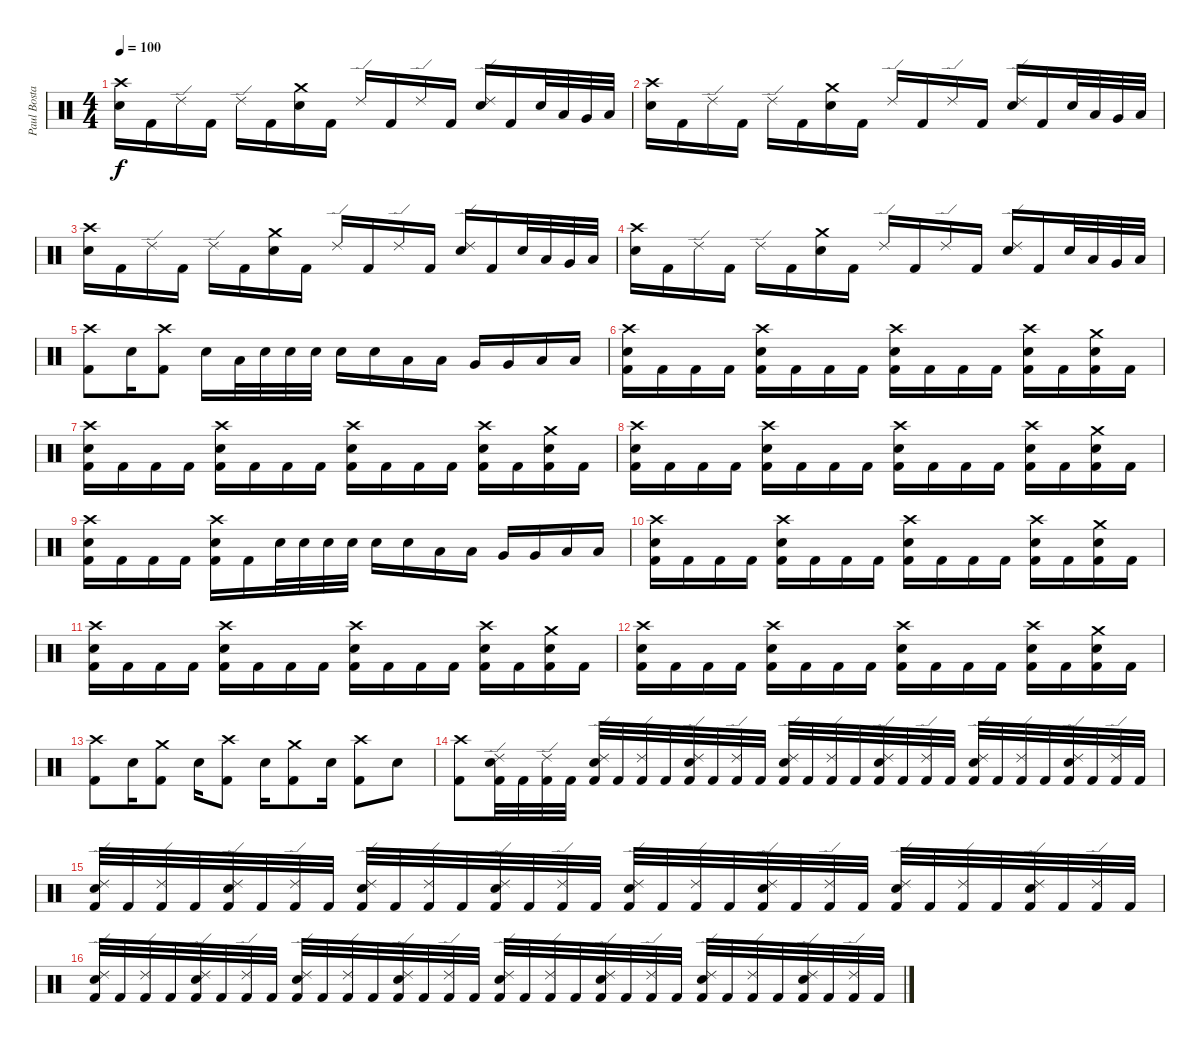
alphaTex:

\track ("Paul Bostaph" "Paul Bosta") {instrument percussion}
\staff {score}
\articulation defaults
\ts (4 4)
\tempo 100
\clef neutral
\ks c
("Crash high (hit)" "Snare (hit) 2").16{dy f} "Kick (hit) 2".16 "Ride (edge) 2".16 "Kick (hit) 2".16 "Ride (edge) 2".16 "Kick (hit) 2".16 ("Crash medium (hit)" "Snare (hit) 2").16 "Kick (hit) 2".16 "Ride (edge) 2".16 "Kick (hit) 2".16 "Ride (edge) 2".16 "Kick (hit) 2".16 ("Ride (edge) 2" "Snare (hit) 2").16 "Kick (hit) 2".16 "Snare (hit) 2".32 "Low Tom (hit)".32 "Very Low Tom (hit)".32 "Low Floor Tom (hit)".32 |
("Crash high (hit)" "Snare (hit) 2").16 "Kick (hit) 2".16 "Ride (edge) 2".16 "Kick (hit) 2".16 "Ride (edge) 2".16 "Kick (hit) 2".16 ("Crash medium (hit)" "Snare (hit) 2").16 "Kick (hit) 2".16 "Ride (edge) 2".16 "Kick (hit) 2".16 "Ride (edge) 2".16 "Kick (hit) 2".16 ("Ride (edge) 2" "Snare (hit) 2").16 "Kick (hit) 2".16 "Snare (hit) 2".32 "Low Tom (hit)".32 "Very Low Tom (hit)".32 "Low Floor Tom (hit)".32 |
("Crash high (hit)" "Snare (hit) 2").16 "Kick (hit) 2".16 "Ride (edge) 2".16 "Kick (hit) 2".16 "Ride (edge) 2".16 "Kick (hit) 2".16 ("Crash medium (hit)" "Snare (hit) 2").16 "Kick (hit) 2".16 "Ride (edge) 2".16 "Kick (hit) 2".16 "Ride (edge) 2".16 "Kick (hit) 2".16 ("Ride (edge) 2" "Snare (hit) 2").16 "Kick (hit) 2".16 "Snare (hit) 2".32 "Low Tom (hit)".32 "Very Low Tom (hit)".32 "Low Floor Tom (hit)".32 |
("Crash high (hit)" "Snare (hit) 2").16 "Kick (hit) 2".16 "Ride (edge) 2".16 "Kick (hit) 2".16 "Ride (edge) 2".16 "Kick (hit) 2".16 ("Crash medium (hit)" "Snare (hit) 2").16 "Kick (hit) 2".16 "Ride (edge) 2".16 "Kick (hit) 2".16 "Ride (edge) 2".16 "Kick (hit) 2".16 ("Ride (edge) 2" "Snare (hit) 2").16 "Kick (hit) 2".16 "Snare (hit) 2".32 "Low Tom (hit)".32 "Very Low Tom (hit)".32 "Low Floor Tom (hit)".32 |
("Crash high (hit)" "Kick (hit) 2").8 "Snare (hit) 2".16 ("Crash high (hit)" "Kick (hit) 2").8 "Snare (hit) 2".16 "Low Tom (hit)".32 "Snare (hit) 2".32 "Snare (hit) 2".32 "Snare (hit) 2".32 "Snare (hit) 2".16 "Snare (hit) 2".16 "Low Tom (hit)".16 "Low Tom (hit)".16 "Very Low Tom (hit)".16 "Very Low Tom (hit)".16 "Low Floor Tom (hit)".16 "Low Floor Tom (hit)".16 |
("Crash high (hit)" "Snare (hit) 2" "Kick (hit) 2").16 "Kick (hit) 2".16 "Kick (hit) 2".16 "Kick (hit) 2".16 ("Crash high (hit)" "Snare (hit) 2" "Kick (hit) 2").16 "Kick (hit) 2".16 "Kick (hit) 2".16 "Kick (hit) 2".16 ("Crash high (hit)" "Snare (hit) 2" "Kick (hit) 2").16 "Kick (hit) 2".16 "Kick (hit) 2".16 "Kick (hit) 2".16 ("Crash high (hit)" "Snare (hit) 2" "Kick (hit) 2").16 "Kick (hit) 2".16 ("Crash medium (hit)" "Snare (hit) 2" "Kick (hit) 2").16 "Kick (hit) 2".16 |
("Crash high (hit)" "Snare (hit) 2" "Kick (hit) 2").16 "Kick (hit) 2".16 "Kick (hit) 2".16 "Kick (hit) 2".16 ("Crash high (hit)" "Snare (hit) 2" "Kick (hit) 2").16 "Kick (hit) 2".16 "Kick (hit) 2".16 "Kick (hit) 2".16 ("Crash high (hit)" "Snare (hit) 2" "Kick (hit) 2").16 "Kick (hit) 2".16 "Kick (hit) 2".16 "Kick (hit) 2".16 ("Crash high (hit)" "Snare (hit) 2" "Kick (hit) 2").16 "Kick (hit) 2".16 ("Crash medium (hit)" "Snare (hit) 2" "Kick (hit) 2").16 "Kick (hit) 2".16 |
("Crash high (hit)" "Snare (hit) 2" "Kick (hit) 2").16 "Kick (hit) 2".16 "Kick (hit) 2".16 "Kick (hit) 2".16 ("Crash high (hit)" "Snare (hit) 2" "Kick (hit) 2").16 "Kick (hit) 2".16 "Kick (hit) 2".16 "Kick (hit) 2".16 ("Crash high (hit)" "Snare (hit) 2" "Kick (hit) 2").16 "Kick (hit) 2".16 "Kick (hit) 2".16 "Kick (hit) 2".16 ("Crash high (hit)" "Snare (hit) 2" "Kick (hit) 2").16 "Kick (hit) 2".16 ("Crash medium (hit)" "Snare (hit) 2" "Kick (hit) 2").16 "Kick (hit) 2".16 |
("Crash high (hit)" "Snare (hit) 2" "Kick (hit) 2").16 "Kick (hit) 2".16 "Kick (hit) 2".16 "Kick (hit) 2".16 ("Crash high (hit)" "Snare (hit) 2" "Kick (hit) 2").16 "Kick (hit) 2".16 "Snare (hit) 2".32 "Snare (hit) 2".32 "Snare (hit) 2".32 "Snare (hit) 2".32 "Snare (hit) 2".16 "Snare (hit) 2".16 "Low Tom (hit)".16 "Low Tom (hit)".16 "Very Low Tom (hit)".16 "Very Low Tom (hit)".16 "Low Floor Tom (hit)".16 "Low Floor Tom (hit)".16 |
("Crash high (hit)" "Snare (hit) 2" "Kick (hit) 2").16 "Kick (hit) 2".16 "Kick (hit) 2".16 "Kick (hit) 2".16 ("Crash high (hit)" "Snare (hit) 2" "Kick (hit) 2").16 "Kick (hit) 2".16 "Kick (hit) 2".16 "Kick (hit) 2".16 ("Crash high (hit)" "Snare (hit) 2" "Kick (hit) 2").16 "Kick (hit) 2".16 "Kick (hit) 2".16 "Kick (hit) 2".16 ("Crash high (hit)" "Snare (hit) 2" "Kick (hit) 2").16 "Kick (hit) 2".16 ("Crash medium (hit)" "Snare (hit) 2" "Kick (hit) 2").16 "Kick (hit) 2".16 |
("Crash high (hit)" "Snare (hit) 2" "Kick (hit) 2").16 "Kick (hit) 2".16 "Kick (hit) 2".16 "Kick (hit) 2".16 ("Crash high (hit)" "Snare (hit) 2" "Kick (hit) 2").16 "Kick (hit) 2".16 "Kick (hit) 2".16 "Kick (hit) 2".16 ("Crash high (hit)" "Snare (hit) 2" "Kick (hit) 2").16 "Kick (hit) 2".16 "Kick (hit) 2".16 "Kick (hit) 2".16 ("Crash high (hit)" "Snare (hit) 2" "Kick (hit) 2").16 "Kick (hit) 2".16 ("Crash medium (hit)" "Snare (hit) 2" "Kick (hit) 2").16 "Kick (hit) 2".16 |
("Crash high (hit)" "Snare (hit) 2" "Kick (hit) 2").16 "Kick (hit) 2".16 "Kick (hit) 2".16 "Kick (hit) 2".16 ("Crash high (hit)" "Snare (hit) 2" "Kick (hit) 2").16 "Kick (hit) 2".16 "Kick (hit) 2".16 "Kick (hit) 2".16 ("Crash high (hit)" "Snare (hit) 2" "Kick (hit) 2").16 "Kick (hit) 2".16 "Kick (hit) 2".16 "Kick (hit) 2".16 ("Crash high (hit)" "Snare (hit) 2" "Kick (hit) 2").16 "Kick (hit) 2".16 ("Crash medium (hit)" "Snare (hit) 2" "Kick (hit) 2").16 "Kick (hit) 2".16 |
("Crash high (hit)" "Kick (hit) 2").8 "Snare (hit) 2".16 ("Crash medium (hit)" "Kick (hit) 2").8 "Snare (hit) 2".16 ("Crash high (hit)" "Kick (hit) 2").8 "Snare (hit) 2".16 ("Crash medium (hit)" "Kick (hit) 2").8 "Snare (hit) 2".16 ("Crash high (hit)" "Kick (hit) 2").8 "Snare (hit) 2".8 |
("Crash high (hit)" "Kick (hit) 2").8 ("Ride (edge) 2" "Snare (hit) 2" "Kick (hit) 2").32 "Kick (hit) 2".32 ("Ride (edge) 2" "Kick (hit) 2").32 "Kick (hit) 2".32 ("Ride (edge) 2" "Snare (hit) 2" "Kick (hit) 2").32 "Kick (hit) 2".32 ("Ride (edge) 2" "Kick (hit) 2").32 "Kick (hit) 2".32 ("Ride (edge) 2" "Snare (hit) 2" "Kick (hit) 2").32 "Kick (hit) 2".32 ("Ride (edge) 2" "Kick (hit) 2").32 "Kick (hit) 2".32 ("Ride (edge) 2" "Snare (hit) 2" "Kick (hit) 2").32 "Kick (hit) 2".32 ("Ride (edge) 2" "Kick (hit) 2").32 "Kick (hit) 2".32 ("Ride (edge) 2" "Snare (hit) 2" "Kick (hit) 2").32 "Kick (hit) 2".32 ("Ride (edge) 2" "Kick (hit) 2").32 "Kick (hit) 2".32 ("Ride (edge) 2" "Snare (hit) 2" "Kick (hit) 2").32 "Kick (hit) 2".32 ("Ride (edge) 2" "Kick (hit) 2").32 "Kick (hit) 2".32 ("Ride (edge) 2" "Snare (hit) 2" "Kick (hit) 2").32 "Kick (hit) 2".32 ("Ride (edge) 2" "Kick (hit) 2").32 "Kick (hit) 2".32 |
("Ride (edge) 2" "Snare (hit) 2" "Kick (hit) 2").32 "Kick (hit) 2".32 ("Ride (edge) 2" "Kick (hit) 2").32 "Kick (hit) 2".32 ("Ride (edge) 2" "Snare (hit) 2" "Kick (hit) 2").32 "Kick (hit) 2".32 ("Ride (edge) 2" "Kick (hit) 2").32 "Kick (hit) 2".32 ("Ride (edge) 2" "Snare (hit) 2" "Kick (hit) 2").32 "Kick (hit) 2".32 ("Ride (edge) 2" "Kick (hit) 2").32 "Kick (hit) 2".32 ("Ride (edge) 2" "Snare (hit) 2" "Kick (hit) 2").32 "Kick (hit) 2".32 ("Ride (edge) 2" "Kick (hit) 2").32 "Kick (hit) 2".32 ("Ride (edge) 2" "Snare (hit) 2" "Kick (hit) 2").32 "Kick (hit) 2".32 ("Ride (edge) 2" "Kick (hit) 2").32 "Kick (hit) 2".32 ("Ride (edge) 2" "Snare (hit) 2" "Kick (hit) 2").32 "Kick (hit) 2".32 ("Ride (edge) 2" "Kick (hit) 2").32 "Kick (hit) 2".32 ("Ride (edge) 2" "Snare (hit) 2" "Kick (hit) 2").32 "Kick (hit) 2".32 ("Ride (edge) 2" "Kick (hit) 2").32 "Kick (hit) 2".32 ("Ride (edge) 2" "Snare (hit) 2" "Kick (hit) 2").32 "Kick (hit) 2".32 ("Ride (edge) 2" "Kick (hit) 2").32 "Kick (hit) 2".32 |
("Ride (edge) 2" "Snare (hit) 2" "Kick (hit) 2").32 "Kick (hit) 2".32 ("Ride (edge) 2" "Kick (hit) 2").32 "Kick (hit) 2".32 ("Ride (edge) 2" "Snare (hit) 2" "Kick (hit) 2").32 "Kick (hit) 2".32 ("Ride (edge) 2" "Kick (hit) 2").32 "Kick (hit) 2".32 ("Ride (edge) 2" "Snare (hit) 2" "Kick (hit) 2").32 "Kick (hit) 2".32 ("Ride (edge) 2" "Kick (hit) 2").32 "Kick (hit) 2".32 ("Ride (edge) 2" "Snare (hit) 2" "Kick (hit) 2").32 "Kick (hit) 2".32 ("Ride (edge) 2" "Kick (hit) 2").32 "Kick (hit) 2".32 ("Ride (edge) 2" "Snare (hit) 2" "Kick (hit) 2").32 "Kick (hit) 2".32 ("Ride (edge) 2" "Kick (hit) 2").32 "Kick (hit) 2".32 ("Ride (edge) 2" "Snare (hit) 2" "Kick (hit) 2").32 "Kick (hit) 2".32 ("Ride (edge) 2" "Kick (hit) 2").32 "Kick (hit) 2".32 ("Ride (edge) 2" "Snare (hit) 2" "Kick (hit) 2").32 "Kick (hit) 2".32 ("Ride (edge) 2" "Kick (hit) 2").32 "Kick (hit) 2".32 ("Ride (edge) 2" "Snare (hit) 2" "Kick (hit) 2").32 "Kick (hit) 2".32 ("Ride (edge) 2" "Kick (hit) 2").32 "Kick (hit) 2".32
